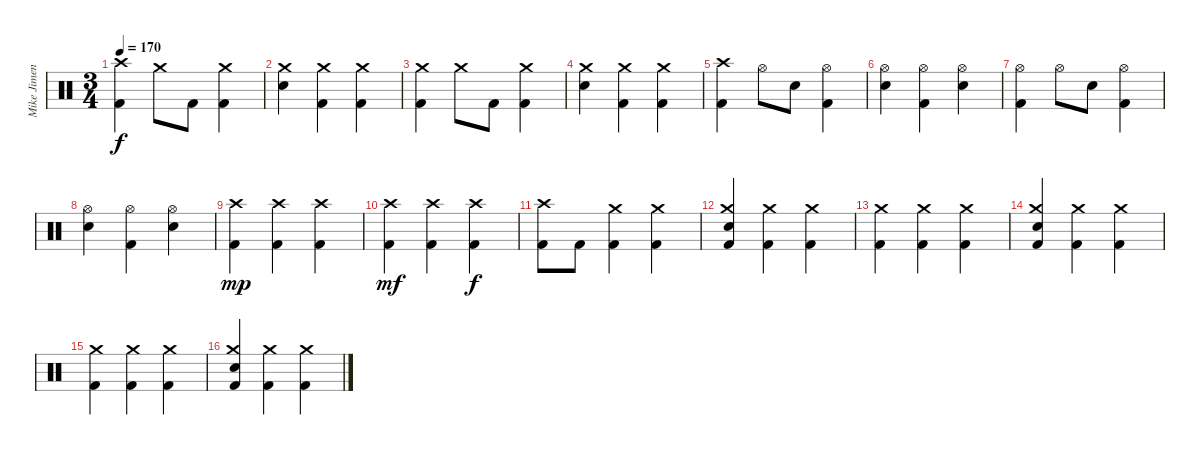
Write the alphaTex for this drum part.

\track ("Mike Jimenez" "Mike Jimen") {instrument percussion}
\staff {score}
\articulation defaults
\ts (3 4)
\tempo 170
\clef neutral
\ks c
("Crash high (hit)" "Kick (hit) 2").4{dy f} "Crash medium (hit)".8 "Kick (hit) 2".8 ("Crash medium (hit)" "Kick (hit) 2").4 |
("Crash medium (hit)" "Electric Snare (hit)").4 ("Crash medium (hit)" "Kick (hit) 2").4 ("Crash medium (hit)" "Kick (hit) 2").4 |
("Crash medium (hit)" "Kick (hit) 2").4 "Crash medium (hit)".8 "Kick (hit) 2".8 ("Crash medium (hit)" "Kick (hit) 2").4 |
("Crash medium (hit)" "Electric Snare (hit)").4 ("Crash medium (hit)" "Kick (hit) 2").4 ("Crash medium (hit)" "Kick (hit) 2").4 |
("Crash high (hit)" "Kick (hit) 2").4 "Hi-Hat (open)".8 "Electric Snare (hit)".8 ("Hi-Hat (open)" "Kick (hit) 2").4 |
("Hi-Hat (open)" "Electric Snare (hit)").4 ("Hi-Hat (open)" "Kick (hit) 2").4 ("Hi-Hat (open)" "Electric Snare (hit)").4 |
("Hi-Hat (open)" "Kick (hit) 2").4 "Hi-Hat (open)".8 "Electric Snare (hit)".8 ("Hi-Hat (open)" "Kick (hit) 2").4 |
("Hi-Hat (open)" "Electric Snare (hit)").4 ("Hi-Hat (open)" "Kick (hit) 2").4 ("Hi-Hat (open)" "Electric Snare (hit)").4 |
("Crash high (hit)" "Kick (hit) 2").4{dy mp} ("Crash high (hit)" "Kick (hit) 2").4 ("Crash high (hit)" "Kick (hit) 2").4 |
("Crash high (hit)" "Kick (hit) 2").4{dy mf} ("Crash high (hit)" "Kick (hit) 2").4 ("Crash high (hit)" "Kick (hit) 2").4{dy f} |
("Crash high (hit)" "Kick (hit) 2").8 "Kick (hit) 2".8 ("Crash medium (hit)" "Kick (hit) 2").4 ("Crash medium (hit)" "Kick (hit) 2").4 |
("Crash medium (hit)" "Electric Snare (hit)" "Kick (hit) 2").4 ("Crash medium (hit)" "Kick (hit) 2").4 ("Crash medium (hit)" "Kick (hit) 2").4 |
("Crash medium (hit)" "Kick (hit) 2").4 ("Crash medium (hit)" "Kick (hit) 2").4 ("Crash medium (hit)" "Kick (hit) 2").4 |
("Crash medium (hit)" "Electric Snare (hit)" "Kick (hit) 2").4 ("Crash medium (hit)" "Kick (hit) 2").4 ("Crash medium (hit)" "Kick (hit) 2").4 |
("Crash medium (hit)" "Kick (hit) 2").4 ("Crash medium (hit)" "Kick (hit) 2").4 ("Crash medium (hit)" "Kick (hit) 2").4 |
("Crash medium (hit)" "Electric Snare (hit)" "Kick (hit) 2").4 ("Crash medium (hit)" "Kick (hit) 2").4 ("Crash medium (hit)" "Kick (hit) 2").4
